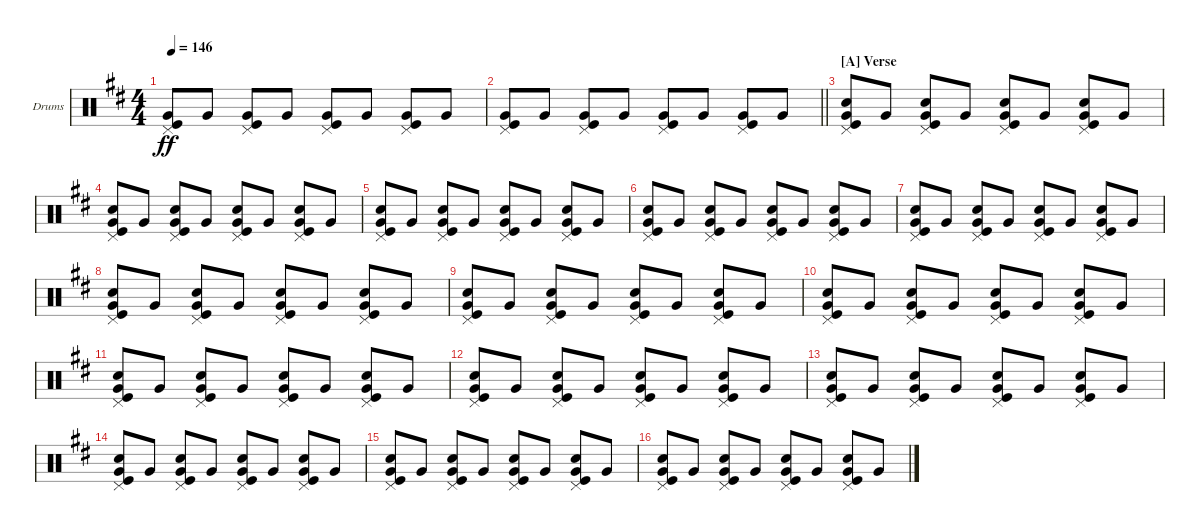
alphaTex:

\bracketExtendMode groupsimilarinstruments
\firstSystemTrackNameOrientation horizontal
\otherSystemsTrackNameOrientation horizontal
\track ("Fabrizio Moretti" "Drums") {instrument percussion}
\staff {score}
\articulation defaults
\ts (4 4)
\tempo 146
\clef neutral
\ks d
("Very Low Tom (hit)" "Kick (hit)" "Pedal Hi-Hat (hit)").8{dy ff} "Very Low Tom (hit)".8 ("Very Low Tom (hit)" "Kick (hit)" "Pedal Hi-Hat (hit)").8 "Very Low Tom (hit)".8 ("Very Low Tom (hit)" "Kick (hit)" "Pedal Hi-Hat (hit)").8 "Very Low Tom (hit)".8 ("Very Low Tom (hit)" "Kick (hit)" "Pedal Hi-Hat (hit)").8 "Very Low Tom (hit)".8 |
\barLineRight lightlight
("Very Low Tom (hit)" "Kick (hit)" "Pedal Hi-Hat (hit)").8 "Very Low Tom (hit)".8 ("Very Low Tom (hit)" "Kick (hit)" "Pedal Hi-Hat (hit)").8 "Very Low Tom (hit)".8 ("Very Low Tom (hit)" "Kick (hit)" "Pedal Hi-Hat (hit)").8 "Very Low Tom (hit)".8 ("Very Low Tom (hit)" "Kick (hit)" "Pedal Hi-Hat (hit)").8 "Very Low Tom (hit)".8 |
\section ("A" "Verse")
("Very Low Tom (hit)" "Pedal Hi-Hat (hit)" "Snare (hit) 2" "Kick (hit)").8 "Very Low Tom (hit)".8 ("Very Low Tom (hit)" "Pedal Hi-Hat (hit)" "Snare (hit) 2" "Kick (hit)").8 "Very Low Tom (hit)".8 ("Very Low Tom (hit)" "Pedal Hi-Hat (hit)" "Snare (hit) 2" "Kick (hit)").8 "Very Low Tom (hit)".8 ("Very Low Tom (hit)" "Pedal Hi-Hat (hit)" "Snare (hit) 2" "Kick (hit)").8 "Very Low Tom (hit)".8 |
("Very Low Tom (hit)" "Pedal Hi-Hat (hit)" "Snare (hit) 2" "Kick (hit)").8 "Very Low Tom (hit)".8 ("Very Low Tom (hit)" "Pedal Hi-Hat (hit)" "Snare (hit) 2" "Kick (hit)").8 "Very Low Tom (hit)".8 ("Very Low Tom (hit)" "Pedal Hi-Hat (hit)" "Snare (hit) 2" "Kick (hit)").8 "Very Low Tom (hit)".8 ("Very Low Tom (hit)" "Pedal Hi-Hat (hit)" "Snare (hit) 2" "Kick (hit)").8 "Very Low Tom (hit)".8 |
("Very Low Tom (hit)" "Pedal Hi-Hat (hit)" "Snare (hit) 2" "Kick (hit)").8 "Very Low Tom (hit)".8 ("Very Low Tom (hit)" "Pedal Hi-Hat (hit)" "Snare (hit) 2" "Kick (hit)").8 "Very Low Tom (hit)".8 ("Very Low Tom (hit)" "Pedal Hi-Hat (hit)" "Snare (hit) 2" "Kick (hit)").8 "Very Low Tom (hit)".8 ("Very Low Tom (hit)" "Pedal Hi-Hat (hit)" "Snare (hit) 2" "Kick (hit)").8 "Very Low Tom (hit)".8 |
("Very Low Tom (hit)" "Pedal Hi-Hat (hit)" "Snare (hit) 2" "Kick (hit)").8 "Very Low Tom (hit)".8 ("Very Low Tom (hit)" "Pedal Hi-Hat (hit)" "Snare (hit) 2" "Kick (hit)").8 "Very Low Tom (hit)".8 ("Very Low Tom (hit)" "Pedal Hi-Hat (hit)" "Snare (hit) 2" "Kick (hit)").8 "Very Low Tom (hit)".8 ("Very Low Tom (hit)" "Pedal Hi-Hat (hit)" "Snare (hit) 2" "Kick (hit)").8 "Very Low Tom (hit)".8 |
("Very Low Tom (hit)" "Pedal Hi-Hat (hit)" "Snare (hit) 2" "Kick (hit)").8 "Very Low Tom (hit)".8 ("Very Low Tom (hit)" "Pedal Hi-Hat (hit)" "Snare (hit) 2" "Kick (hit)").8 "Very Low Tom (hit)".8 ("Very Low Tom (hit)" "Pedal Hi-Hat (hit)" "Snare (hit) 2" "Kick (hit)").8 "Very Low Tom (hit)".8 ("Very Low Tom (hit)" "Pedal Hi-Hat (hit)" "Snare (hit) 2" "Kick (hit)").8 "Very Low Tom (hit)".8 |
("Very Low Tom (hit)" "Pedal Hi-Hat (hit)" "Snare (hit) 2" "Kick (hit)").8 "Very Low Tom (hit)".8 ("Very Low Tom (hit)" "Pedal Hi-Hat (hit)" "Snare (hit) 2" "Kick (hit)").8 "Very Low Tom (hit)".8 ("Very Low Tom (hit)" "Pedal Hi-Hat (hit)" "Snare (hit) 2" "Kick (hit)").8 "Very Low Tom (hit)".8 ("Very Low Tom (hit)" "Pedal Hi-Hat (hit)" "Snare (hit) 2" "Kick (hit)").8 "Very Low Tom (hit)".8 |
("Very Low Tom (hit)" "Pedal Hi-Hat (hit)" "Snare (hit) 2" "Kick (hit)").8 "Very Low Tom (hit)".8 ("Very Low Tom (hit)" "Pedal Hi-Hat (hit)" "Snare (hit) 2" "Kick (hit)").8 "Very Low Tom (hit)".8 ("Very Low Tom (hit)" "Pedal Hi-Hat (hit)" "Snare (hit) 2" "Kick (hit)").8 "Very Low Tom (hit)".8 ("Very Low Tom (hit)" "Pedal Hi-Hat (hit)" "Snare (hit) 2" "Kick (hit)").8 "Very Low Tom (hit)".8 |
("Very Low Tom (hit)" "Pedal Hi-Hat (hit)" "Snare (hit) 2" "Kick (hit)").8 "Very Low Tom (hit)".8 ("Very Low Tom (hit)" "Pedal Hi-Hat (hit)" "Snare (hit) 2" "Kick (hit)").8 "Very Low Tom (hit)".8 ("Very Low Tom (hit)" "Pedal Hi-Hat (hit)" "Snare (hit) 2" "Kick (hit)").8 "Very Low Tom (hit)".8 ("Very Low Tom (hit)" "Pedal Hi-Hat (hit)" "Snare (hit) 2" "Kick (hit)").8 "Very Low Tom (hit)".8 |
("Very Low Tom (hit)" "Pedal Hi-Hat (hit)" "Snare (hit) 2" "Kick (hit)").8 "Very Low Tom (hit)".8 ("Very Low Tom (hit)" "Pedal Hi-Hat (hit)" "Snare (hit) 2" "Kick (hit)").8 "Very Low Tom (hit)".8 ("Very Low Tom (hit)" "Pedal Hi-Hat (hit)" "Snare (hit) 2" "Kick (hit)").8 "Very Low Tom (hit)".8 ("Very Low Tom (hit)" "Pedal Hi-Hat (hit)" "Snare (hit) 2" "Kick (hit)").8 "Very Low Tom (hit)".8 |
("Very Low Tom (hit)" "Pedal Hi-Hat (hit)" "Snare (hit) 2" "Kick (hit)").8 "Very Low Tom (hit)".8 ("Very Low Tom (hit)" "Pedal Hi-Hat (hit)" "Snare (hit) 2" "Kick (hit)").8 "Very Low Tom (hit)".8 ("Very Low Tom (hit)" "Pedal Hi-Hat (hit)" "Snare (hit) 2" "Kick (hit)").8 "Very Low Tom (hit)".8 ("Very Low Tom (hit)" "Pedal Hi-Hat (hit)" "Snare (hit) 2" "Kick (hit)").8 "Very Low Tom (hit)".8 |
("Very Low Tom (hit)" "Pedal Hi-Hat (hit)" "Snare (hit) 2" "Kick (hit)").8 "Very Low Tom (hit)".8 ("Very Low Tom (hit)" "Pedal Hi-Hat (hit)" "Snare (hit) 2" "Kick (hit)").8 "Very Low Tom (hit)".8 ("Very Low Tom (hit)" "Pedal Hi-Hat (hit)" "Snare (hit) 2" "Kick (hit)").8 "Very Low Tom (hit)".8 ("Very Low Tom (hit)" "Pedal Hi-Hat (hit)" "Snare (hit) 2" "Kick (hit)").8 "Very Low Tom (hit)".8 |
("Very Low Tom (hit)" "Pedal Hi-Hat (hit)" "Snare (hit) 2" "Kick (hit)").8 "Very Low Tom (hit)".8 ("Very Low Tom (hit)" "Pedal Hi-Hat (hit)" "Snare (hit) 2" "Kick (hit)").8 "Very Low Tom (hit)".8 ("Very Low Tom (hit)" "Pedal Hi-Hat (hit)" "Snare (hit) 2" "Kick (hit)").8 "Very Low Tom (hit)".8 ("Very Low Tom (hit)" "Pedal Hi-Hat (hit)" "Snare (hit) 2" "Kick (hit)").8 "Very Low Tom (hit)".8 |
("Very Low Tom (hit)" "Pedal Hi-Hat (hit)" "Snare (hit) 2" "Kick (hit)").8 "Very Low Tom (hit)".8 ("Very Low Tom (hit)" "Pedal Hi-Hat (hit)" "Snare (hit) 2" "Kick (hit)").8 "Very Low Tom (hit)".8 ("Very Low Tom (hit)" "Pedal Hi-Hat (hit)" "Snare (hit) 2" "Kick (hit)").8 "Very Low Tom (hit)".8 ("Very Low Tom (hit)" "Pedal Hi-Hat (hit)" "Snare (hit) 2" "Kick (hit)").8 "Very Low Tom (hit)".8 |
("Very Low Tom (hit)" "Pedal Hi-Hat (hit)" "Snare (hit) 2" "Kick (hit)").8 "Very Low Tom (hit)".8 ("Very Low Tom (hit)" "Pedal Hi-Hat (hit)" "Snare (hit) 2" "Kick (hit)").8 "Very Low Tom (hit)".8 ("Very Low Tom (hit)" "Pedal Hi-Hat (hit)" "Snare (hit) 2" "Kick (hit)").8 "Very Low Tom (hit)".8 ("Very Low Tom (hit)" "Pedal Hi-Hat (hit)" "Snare (hit) 2" "Kick (hit)").8 "Very Low Tom (hit)".8
